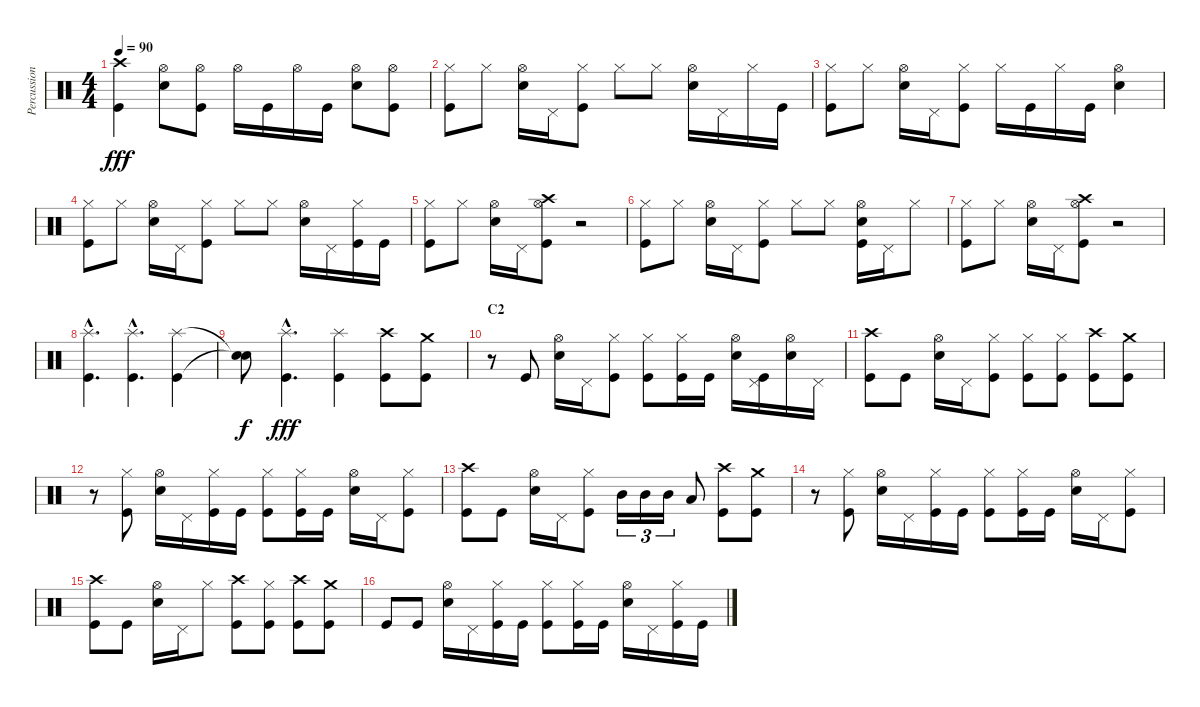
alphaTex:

\track ("Percussion" "Percussion") {instrument percussion}
\staff {score}
\articulation defaults
\ts (4 4)
\tempo 90
\clef neutral
\ks c
("Crash high (hit)" "Kick (hit)").4{dy fff} ("Hi-Hat (open)" "Electric Snare (hit)").8 ("Hi-Hat (open)" "Kick (hit)").8 "Hi-Hat (open)".16 "Kick (hit)".16 "Hi-Hat (open)".16 "Kick (hit)".16 ("Hi-Hat (open)" "Electric Snare (hit)").8 ("Hi-Hat (open)" "Kick (hit)").8 |
("Hi-Hat (closed)" "Kick (hit)").8 "Hi-Hat (closed)".8 ("Hi-Hat (open)" "Electric Snare (hit)").16 "Pedal Hi-Hat (hit)".16 ("Hi-Hat (closed)" "Kick (hit)").8 "Hi-Hat (closed)".8 "Hi-Hat (closed)".8 ("Hi-Hat (open)" "Electric Snare (hit)").16 "Pedal Hi-Hat (hit)".16 "Hi-Hat (closed)".16 "Kick (hit)".16 |
("Hi-Hat (closed)" "Kick (hit)").8 "Hi-Hat (closed)".8 ("Hi-Hat (open)" "Electric Snare (hit)").16 "Pedal Hi-Hat (hit)".16 ("Hi-Hat (closed)" "Kick (hit)").8 "Hi-Hat (closed)".16 "Kick (hit)".16 "Hi-Hat (closed)".16 "Kick (hit)".16 ("Hi-Hat (open)" "Electric Snare (hit)").4 |
("Hi-Hat (closed)" "Kick (hit)").8 "Hi-Hat (closed)".8 ("Hi-Hat (open)" "Electric Snare (hit)").16 "Pedal Hi-Hat (hit)".16 ("Hi-Hat (closed)" "Kick (hit)").8 "Hi-Hat (closed)".8 "Hi-Hat (closed)".8 ("Hi-Hat (open)" "Electric Snare (hit)").16 "Pedal Hi-Hat (hit)".16 ("Hi-Hat (closed)" "Kick (hit)").16 "Kick (hit)".16 |
("Hi-Hat (closed)" "Kick (hit)").8 "Hi-Hat (closed)".8 ("Hi-Hat (open)" "Electric Snare (hit)").16 "Pedal Hi-Hat (hit)".16 ("Hi-Hat (open)" "Crash high (hit)" "Kick (hit)").8 r.2 |
("Hi-Hat (closed)" "Kick (hit)").8 "Hi-Hat (closed)".8 ("Hi-Hat (open)" "Electric Snare (hit)").16 "Pedal Hi-Hat (hit)".16 ("Hi-Hat (closed)" "Kick (hit)").8 "Hi-Hat (closed)".8 "Hi-Hat (closed)".8 ("Hi-Hat (open)" "Electric Snare (hit)" "Kick (hit)").16 "Pedal Hi-Hat (hit)".16 "Hi-Hat (closed)".8 |
("Hi-Hat (closed)" "Kick (hit)").8 "Hi-Hat (closed)".8 ("Hi-Hat (open)" "Electric Snare (hit)").16 "Pedal Hi-Hat (hit)".16 ("Hi-Hat (open)" "Crash high (hit)" "Kick (hit)").8 r.2 |
("Splash (hit)"{hac} "Kick (hit)"{hac}).4{d} ("Splash (hit)"{hac} "Kick (hit)"{hac}).4{d} ("Splash (hit)" "Kick (hit)").4 |
("Snare (hit)"{t} "Snare (hit)"{t}).8{dy f} ("Splash (hit)"{hac} "Kick (hit)"{hac}).4{d dy fff} ("Splash (hit)" "Kick (hit)").4 ("Crash high (hit)" "Kick (hit)").8 ("Crash medium (hit)" "Kick (hit)").8 |
\section ("" "C2")
r.8 "Kick (hit)".8 ("Hi-Hat (open)" "Electric Snare (hit)").16 "Pedal Hi-Hat (hit)".16 ("Hi-Hat (closed)" "Kick (hit)").8 ("Hi-Hat (closed)" "Kick (hit)").8 ("Hi-Hat (closed)" "Kick (hit)").16 "Kick (hit)".16 ("Hi-Hat (open)" "Electric Snare (hit)").16 ("Pedal Hi-Hat (hit)" "Kick (hit)").16 ("Hi-Hat (open)" "Electric Snare (hit)").16 "Pedal Hi-Hat (hit)".16 |
("Crash high (hit)" "Kick (hit)").8 "Kick (hit)".8 ("Hi-Hat (open)" "Electric Snare (hit)").16 "Pedal Hi-Hat (hit)".16 ("Hi-Hat (closed)" "Kick (hit)").8 ("Hi-Hat (closed)" "Kick (hit)").8 ("Hi-Hat (closed)" "Kick (hit)").8 ("Crash high (hit)" "Kick (hit)").8 ("Crash medium (hit)" "Kick (hit)").8 |
r.8 ("Hi-Hat (closed)" "Kick (hit)").8 ("Hi-Hat (open)" "Electric Snare (hit)").16 "Pedal Hi-Hat (hit)".16 ("Hi-Hat (closed)" "Kick (hit)").16 "Kick (hit)".16 ("Hi-Hat (closed)" "Kick (hit)").8 ("Hi-Hat (closed)" "Kick (hit)").16 "Kick (hit)".16 ("Hi-Hat (open)" "Electric Snare (hit)").16 "Pedal Hi-Hat (hit)".16 ("Hi-Hat (closed)" "Kick (hit)").8 |
("Crash high (hit)" "Kick (hit)").8 "Kick (hit)".8 ("Hi-Hat (open)" "Electric Snare (hit)").16 "Pedal Hi-Hat (hit)".16 ("Hi-Hat (closed)" "Kick (hit)").8 "Mid Tom (hit)".16{tu (3 2)} "Mid Tom (hit)".16{tu (3 2)} "Mid Tom (hit)".16{tu (3 2)} "Low Tom (hit)".8 ("Crash high (hit)" "Kick (hit)").8 ("Crash medium (hit)" "Kick (hit)").8 |
r.8 ("Hi-Hat (closed)" "Kick (hit)").8 ("Hi-Hat (open)" "Electric Snare (hit)").16 "Pedal Hi-Hat (hit)".16 ("Hi-Hat (closed)" "Kick (hit)").16 "Kick (hit)".16 ("Hi-Hat (closed)" "Kick (hit)").8 ("Hi-Hat (closed)" "Kick (hit)").16 "Kick (hit)".16 ("Hi-Hat (open)" "Electric Snare (hit)").16 "Pedal Hi-Hat (hit)".16 ("Hi-Hat (closed)" "Kick (hit)").8 |
("Crash high (hit)" "Kick (hit)").8 "Kick (hit)".8 ("Hi-Hat (open)" "Electric Snare (hit)").16 "Pedal Hi-Hat (hit)".16 "Hi-Hat (closed)".8 ("Crash high (hit)" "Kick (hit)").8 ("Hi-Hat (closed)" "Kick (hit)").8 ("Crash high (hit)" "Kick (hit)").8 ("Crash medium (hit)" "Kick (hit)").8 |
"Kick (hit)".8 "Kick (hit)".8 ("Hi-Hat (open)" "Electric Snare (hit)").16 "Pedal Hi-Hat (hit)".16 ("Hi-Hat (closed)" "Kick (hit)").16 "Kick (hit)".16 ("Hi-Hat (closed)" "Kick (hit)").8 ("Hi-Hat (closed)" "Kick (hit)").16 "Kick (hit)".16 ("Hi-Hat (open)" "Electric Snare (hit)").16 "Pedal Hi-Hat (hit)".16 ("Hi-Hat (closed)" "Kick (hit)").16 "Kick (hit)".16
